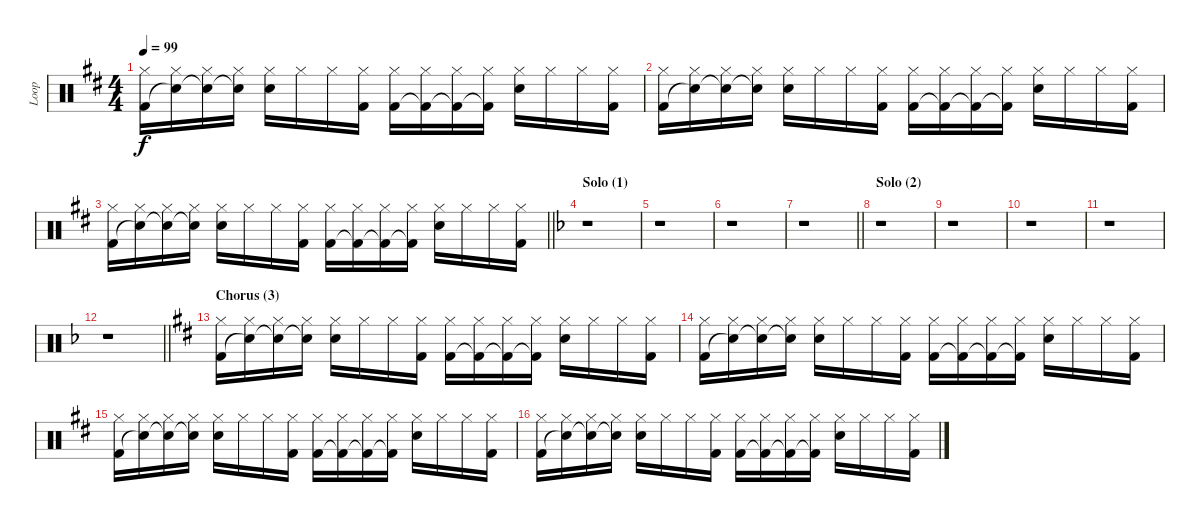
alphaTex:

\track ("Loop" "Loop") {instrument percussion}
\staff {score}
\articulation defaults
\ts (4 4)
\tempo 99
\clef neutral
\ks d
("Hi-Hat (closed)" "Kick (hit) 2").16{dy f} ("Hi-Hat (closed)" "Snare (hit)"{t}).16 ("Hi-Hat (closed)" "Snare (hit)"{t}).16 ("Hi-Hat (closed)" "Snare (hit)"{t}).16 ("Hi-Hat (closed)" "Electric Snare (hit)").16 "Hi-Hat (closed)".16 "Hi-Hat (closed)".16 ("Hi-Hat (closed)" "Kick (hit) 2").16 ("Hi-Hat (closed)" "Kick (hit) 2").16 ("Hi-Hat (closed)" "Kick (hit) 2"{t}).16 ("Hi-Hat (closed)" "Kick (hit) 2"{t}).16 ("Hi-Hat (closed)" "Kick (hit) 2"{t}).16 ("Hi-Hat (closed)" "Electric Snare (hit)").16 "Hi-Hat (closed)".16 "Hi-Hat (closed)".16 ("Hi-Hat (closed)" "Kick (hit) 2").16 |
("Hi-Hat (closed)" "Kick (hit) 2").16 ("Hi-Hat (closed)" "Snare (hit)"{t}).16 ("Hi-Hat (closed)" "Snare (hit)"{t}).16 ("Hi-Hat (closed)" "Snare (hit)"{t}).16 ("Hi-Hat (closed)" "Electric Snare (hit)").16 "Hi-Hat (closed)".16 "Hi-Hat (closed)".16 ("Hi-Hat (closed)" "Kick (hit) 2").16 ("Hi-Hat (closed)" "Kick (hit) 2").16 ("Hi-Hat (closed)" "Kick (hit) 2"{t}).16 ("Hi-Hat (closed)" "Kick (hit) 2"{t}).16 ("Hi-Hat (closed)" "Kick (hit) 2"{t}).16 ("Hi-Hat (closed)" "Electric Snare (hit)").16 "Hi-Hat (closed)".16 "Hi-Hat (closed)".16 ("Hi-Hat (closed)" "Kick (hit) 2").16 |
\barLineRight lightlight
("Hi-Hat (closed)" "Kick (hit) 2").16 ("Hi-Hat (closed)" "Snare (hit)"{t}).16 ("Hi-Hat (closed)" "Snare (hit)"{t}).16 ("Hi-Hat (closed)" "Snare (hit)"{t}).16 ("Hi-Hat (closed)" "Electric Snare (hit)").16 "Hi-Hat (closed)".16 "Hi-Hat (closed)".16 ("Hi-Hat (closed)" "Kick (hit) 2").16 ("Hi-Hat (closed)" "Kick (hit) 2").16 ("Hi-Hat (closed)" "Kick (hit) 2"{t}).16 ("Hi-Hat (closed)" "Kick (hit) 2"{t}).16 ("Hi-Hat (closed)" "Kick (hit) 2"{t}).16 ("Hi-Hat (closed)" "Electric Snare (hit)").16 "Hi-Hat (closed)".16 "Hi-Hat (closed)".16 ("Hi-Hat (closed)" "Kick (hit) 2").16 |
\section ("" "Solo (1)")
\ks dminor
r.1 |
r.1 |
r.1 |
\barLineRight lightlight
r.1 |
\section ("" "Solo (2)")
r.1 |
r.1 |
r.1 |
r.1 |
\barLineRight lightlight
r.1 |
\section ("" "Chorus (3)")
\ks d
("Hi-Hat (closed)" "Kick (hit) 2").16 ("Hi-Hat (closed)" "Snare (hit)"{t}).16 ("Hi-Hat (closed)" "Snare (hit)"{t}).16 ("Hi-Hat (closed)" "Snare (hit)"{t}).16 ("Hi-Hat (closed)" "Electric Snare (hit)").16 "Hi-Hat (closed)".16 "Hi-Hat (closed)".16 ("Hi-Hat (closed)" "Kick (hit) 2").16 ("Hi-Hat (closed)" "Kick (hit) 2").16 ("Hi-Hat (closed)" "Kick (hit) 2"{t}).16 ("Hi-Hat (closed)" "Kick (hit) 2"{t}).16 ("Hi-Hat (closed)" "Kick (hit) 2"{t}).16 ("Hi-Hat (closed)" "Electric Snare (hit)").16 "Hi-Hat (closed)".16 "Hi-Hat (closed)".16 ("Hi-Hat (closed)" "Kick (hit) 2").16 |
("Hi-Hat (closed)" "Kick (hit) 2").16 ("Hi-Hat (closed)" "Snare (hit)"{t}).16 ("Hi-Hat (closed)" "Snare (hit)"{t}).16 ("Hi-Hat (closed)" "Snare (hit)"{t}).16 ("Hi-Hat (closed)" "Electric Snare (hit)").16 "Hi-Hat (closed)".16 "Hi-Hat (closed)".16 ("Hi-Hat (closed)" "Kick (hit) 2").16 ("Hi-Hat (closed)" "Kick (hit) 2").16 ("Hi-Hat (closed)" "Kick (hit) 2"{t}).16 ("Hi-Hat (closed)" "Kick (hit) 2"{t}).16 ("Hi-Hat (closed)" "Kick (hit) 2"{t}).16 ("Hi-Hat (closed)" "Electric Snare (hit)").16 "Hi-Hat (closed)".16 "Hi-Hat (closed)".16 ("Hi-Hat (closed)" "Kick (hit) 2").16 |
("Hi-Hat (closed)" "Kick (hit) 2").16 ("Hi-Hat (closed)" "Snare (hit)"{t}).16 ("Hi-Hat (closed)" "Snare (hit)"{t}).16 ("Hi-Hat (closed)" "Snare (hit)"{t}).16 ("Hi-Hat (closed)" "Electric Snare (hit)").16 "Hi-Hat (closed)".16 "Hi-Hat (closed)".16 ("Hi-Hat (closed)" "Kick (hit) 2").16 ("Hi-Hat (closed)" "Kick (hit) 2").16 ("Hi-Hat (closed)" "Kick (hit) 2"{t}).16 ("Hi-Hat (closed)" "Kick (hit) 2"{t}).16 ("Hi-Hat (closed)" "Kick (hit) 2"{t}).16 ("Hi-Hat (closed)" "Electric Snare (hit)").16 "Hi-Hat (closed)".16 "Hi-Hat (closed)".16 ("Hi-Hat (closed)" "Kick (hit) 2").16 |
("Hi-Hat (closed)" "Kick (hit) 2").16 ("Hi-Hat (closed)" "Snare (hit)"{t}).16 ("Hi-Hat (closed)" "Snare (hit)"{t}).16 ("Hi-Hat (closed)" "Snare (hit)"{t}).16 ("Hi-Hat (closed)" "Electric Snare (hit)").16 "Hi-Hat (closed)".16 "Hi-Hat (closed)".16 ("Hi-Hat (closed)" "Kick (hit) 2").16 ("Hi-Hat (closed)" "Kick (hit) 2").16 ("Hi-Hat (closed)" "Kick (hit) 2"{t}).16 ("Hi-Hat (closed)" "Kick (hit) 2"{t}).16 ("Hi-Hat (closed)" "Kick (hit) 2"{t}).16 ("Hi-Hat (closed)" "Electric Snare (hit)").16 "Hi-Hat (closed)".16 "Hi-Hat (closed)".16 ("Hi-Hat (closed)" "Kick (hit) 2").16
